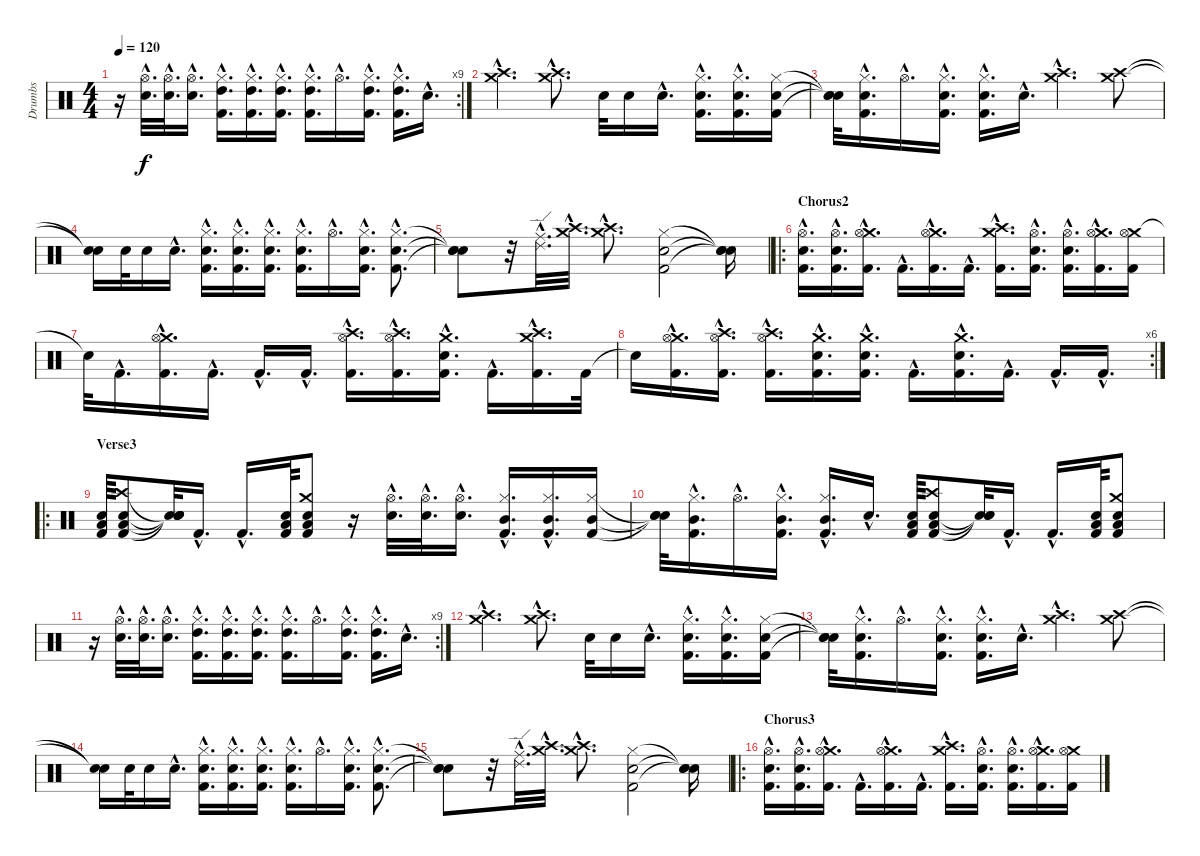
\track ("Drumbs" "Drumbs") {instrument percussion}
\staff {score}
\articulation defaults
\rc 9
\ts (4 4)
\tempo 120
\clef neutral
\ks c
r.16{dy f} ("Electric Snare (hit)"{hac} "Hi-Hat (open)"{hac}).32{d} ("Electric Snare (hit)"{hac} "Hi-Hat (open)"{hac}).32{d} ("Electric Snare (hit)"{hac} "Hi-Hat (open)"{hac}).16{d} ("High Tom (hit)"{hac} "Kick (hit) 2"{hac} "Hi-Hat (closed)"{hac}).16{d} ("High Tom (hit)"{hac} "Kick (hit) 2"{hac} "Hi-Hat (closed)"{hac}).16{d} ("High Tom (hit)"{hac} "Kick (hit) 2"{hac} "Hi-Hat (closed)"{hac}).16{d} ("High Tom (hit)"{hac} "Kick (hit) 2"{hac} "Hi-Hat (closed)"{hac}).16{d} "Hi-Hat (open)"{hac}.16{d} ("High Tom (hit)"{hac} "Kick (hit) 2"{hac} "Hi-Hat (closed)"{hac}).16{d} ("High Tom (hit)"{hac} "Kick (hit) 2"{hac} "Hi-Hat (closed)"{hac}).16{d} "Electric Snare (hit)"{hac}.16{d} |
("Crash high (hit)"{hac} "Crash medium (hit)"{hac}).4{d} ("Crash high (hit)"{hac} "Crash medium (hit)"{hac}).8{d} "Electric Snare (hit)".32 "Electric Snare (hit)".16 "Electric Snare (hit)"{hac}.16{d} ("Electric Snare (hit)"{hac} "Kick (hit) 2"{hac} "Hi-Hat (closed)"{hac}).16{d} ("Electric Snare (hit)"{hac} "Kick (hit) 2"{hac} "Hi-Hat (closed)"{hac}).16{d} ("Electric Snare (hit)" "Kick (hit) 2" "Hi-Hat (closed)").16 |
("Snare (hit)"{t} "Snare (hit)"{t} "Snare (hit)"{t}).32 ("Electric Snare (hit)"{hac} "Kick (hit) 2"{hac} "Hi-Hat (closed)"{hac}).16{d} "Hi-Hat (open)"{hac}.16{d} ("Electric Snare (hit)"{hac} "Kick (hit) 2"{hac} "Hi-Hat (closed)"{hac}).16{d} ("Electric Snare (hit)"{hac} "Kick (hit) 2"{hac} "Hi-Hat (closed)"{hac}).16{d} "Electric Snare (hit)"{hac}.16{d} ("Crash high (hit)"{hac} "Crash medium (hit)"{hac}).4{d} ("Crash high (hit)" "Crash medium (hit)").8 |
("Snare (hit)"{t} "Snare (hit)"{t}).16 "Electric Snare (hit)".32 "Electric Snare (hit)".16 "Electric Snare (hit)"{hac}.16{d} ("Electric Snare (hit)"{hac} "Kick (hit) 2"{hac} "Hi-Hat (closed)"{hac}).16{d} ("Electric Snare (hit)"{hac} "Kick (hit) 2"{hac} "Hi-Hat (closed)"{hac}).16{d} ("Electric Snare (hit)"{hac} "Kick (hit) 2"{hac} "Hi-Hat (closed)"{hac}).16{d} ("Electric Snare (hit)"{hac} "Kick (hit) 2"{hac} "Hi-Hat (closed)"{hac}).16{d} "Hi-Hat (open)"{hac}.16{d} ("Electric Snare (hit)"{hac} "Kick (hit) 2"{hac} "Hi-Hat (closed)"{hac}).16{d} ("Electric Snare (hit)"{hac} "Kick (hit) 2"{hac} "Hi-Hat (closed)"{hac}).8{d} |
("Snare (hit)"{t} "Electric Snare (hit)"{t} "Snare (hit)"{t}).8 r.32 ("Ride (middle)"{hac} "Ride (edge) 2"{hac}).32{d} ("Crash high (hit)"{hac} "Crash medium (hit)"{hac}).32{d} ("Crash high (hit)"{hac} "Crash medium (hit)"{hac}).8{d} ("Electric Snare (hit)" "Kick (hit) 2" "Hi-Hat (closed)").2 ("Snare (hit)"{t} "Snare (hit)"{t} "Snare (hit)"{t}).16 |
\ro
\section ("" "Chorus2")
("Hi-Hat (open)"{hac} "Electric Snare (hit)"{hac} "Kick (hit) 2"{hac}).16{d} ("Hi-Hat (open)"{hac} "Electric Snare (hit)"{hac} "Kick (hit) 2"{hac}).16{d} ("Crash medium (hit)"{hac} "Hi-Hat (open)"{hac} "Kick (hit) 2"{hac}).16{d} "Kick (hit) 2"{hac}.16{d} ("Crash medium (hit)"{hac} "Hi-Hat (open)"{hac} "Kick (hit) 2"{hac}).16{d} "Kick (hit) 2"{hac}.16{d} ("Crash medium (hit)"{hac} "Crash high (hit)"{hac} "Kick (hit) 2"{hac}).16{d} ("Hi-Hat (open)"{hac} "Electric Snare (hit)"{hac} "Kick (hit) 2"{hac}).16{d} ("Hi-Hat (open)"{hac} "Electric Snare (hit)"{hac} "Kick (hit) 2"{hac}).16{d} ("Crash medium (hit)"{hac} "Hi-Hat (open)"{hac} "Kick (hit) 2"{hac}).16{d} ("Crash medium (hit)" "Hi-Hat (open)" "Kick (hit) 2").16 |
"Snare (hit)"{t}.32 "Kick (hit) 2"{hac}.16{d} ("Crash medium (hit)"{hac} "Hi-Hat (open)"{hac} "Kick (hit) 2"{hac}).16{d} "Kick (hit) 2"{hac}.16{d} "Kick (hit) 2"{hac}.16{d} "Kick (hit) 2"{hac}.16{d} ("Hi-Hat (open)"{hac} "Crash high (hit)"{hac} "Kick (hit) 2"{hac}).16{d} ("Hi-Hat (open)"{hac} "Crash high (hit)"{hac} "Kick (hit) 2"{hac}).16{d} ("Crash medium (hit)"{hac} "Electric Snare (hit)"{hac} "Kick (hit) 2"{hac}).16{d} "Kick (hit) 2"{hac}.16{d} ("Crash medium (hit)"{hac} "Crash high (hit)"{hac} "Kick (hit) 2"{hac}).16{d} "Kick (hit) 2".32 |
\rc 6 "Snare (hit)"{t}.16
("Crash medium (hit)"{hac} "Hi-Hat (open)"{hac} "Kick (hit) 2"{hac}).16{d} ("Hi-Hat (open)"{hac} "Crash high (hit)"{hac} "Kick (hit) 2"{hac}).16{d} ("Hi-Hat (open)"{hac} "Crash high (hit)"{hac} "Kick (hit) 2"{hac}).16{d} ("Crash medium (hit)"{hac} "Electric Snare (hit)"{hac} "Kick (hit) 2"{hac}).16{d} ("Crash medium (hit)"{hac} "Electric Snare (hit)"{hac} "Kick (hit) 2"{hac}).16{d} "Kick (hit) 2"{hac}.16{d} ("Crash medium (hit)"{hac} "Electric Snare (hit)"{hac} "Kick (hit) 2"{hac}).16{d} "Kick (hit) 2"{hac}.16{d} "Kick (hit) 2"{hac}.16{d} "Kick (hit) 2"{hac}.16{d} |
\ro
\section ("" "Verse3")
("Electric Snare (hit)" "Kick (hit) 2" "Low Tom (hit)").64 ("Electric Snare (hit)" "Kick (hit) 2" "Low Tom (hit)" "Crash high (hit)").8 ("Snare (hit)"{t} "Snare (hit)"{t} "Snare (hit)"{t} "Snare (hit)"{t}).32 "Kick (hit) 2"{hac}.16{d} "Kick (hit) 2"{hac}.16{d} ("Electric Snare (hit)" "Kick (hit) 2" "Low Tom (hit)").64 ("Electric Snare (hit)" "Kick (hit) 2" "Low Tom (hit)" "Crash medium (hit)").8 r.16 ("Electric Snare (hit)"{hac} "Hi-Hat (open)"{hac}).32{d} ("Electric Snare (hit)"{hac} "Hi-Hat (open)"{hac}).32{d} ("Electric Snare (hit)"{hac} "Hi-Hat (open)"{hac}).16{d} ("Mid Tom (hit)"{hac} "Kick (hit) 2"{hac} "Hi-Hat (closed)"{hac}).16{d} ("Mid Tom (hit)"{hac} "Kick (hit) 2"{hac} "Hi-Hat (closed)"{hac}).16{d} ("Mid Tom (hit)" "Kick (hit) 2" "Hi-Hat (closed)").16 |
("Snare (hit)"{t} "Snare (hit)"{t} "Snare (hit)"{t}).32 ("Mid Tom (hit)"{hac} "Kick (hit) 2"{hac} "Hi-Hat (closed)"{hac}).16{d} "Hi-Hat (open)"{hac}.16{d} ("Mid Tom (hit)"{hac} "Kick (hit) 2"{hac} "Hi-Hat (closed)"{hac}).16{d} ("Mid Tom (hit)"{hac} "Kick (hit) 2"{hac} "Hi-Hat (closed)"{hac}).16{d} "Electric Snare (hit)"{hac}.16{d} ("Electric Snare (hit)" "Kick (hit) 2" "Low Tom (hit)").64 ("Electric Snare (hit)" "Kick (hit) 2" "Low Tom (hit)" "Crash high (hit)").8 ("Snare (hit)"{t} "Snare (hit)"{t} "Snare (hit)"{t}).32 "Kick (hit) 2"{hac}.16{d} "Kick (hit) 2"{hac}.16{d} ("Electric Snare (hit)" "Kick (hit) 2" "Low Tom (hit)").64 ("Electric Snare (hit)" "Kick (hit) 2" "Low Tom (hit)" "Crash medium (hit)").8 |
\rc 9
r.16 ("Electric Snare (hit)"{hac} "Hi-Hat (open)"{hac}).32{d} ("Electric Snare (hit)"{hac} "Hi-Hat (open)"{hac}).32{d} ("Electric Snare (hit)"{hac} "Hi-Hat (open)"{hac}).16{d} ("High Tom (hit)"{hac} "Kick (hit) 2"{hac} "Hi-Hat (closed)"{hac}).16{d} ("High Tom (hit)"{hac} "Kick (hit) 2"{hac} "Hi-Hat (closed)"{hac}).16{d} ("High Tom (hit)"{hac} "Kick (hit) 2"{hac} "Hi-Hat (closed)"{hac}).16{d} ("High Tom (hit)"{hac} "Kick (hit) 2"{hac} "Hi-Hat (closed)"{hac}).16{d} "Hi-Hat (open)"{hac}.16{d} ("High Tom (hit)"{hac} "Kick (hit) 2"{hac} "Hi-Hat (closed)"{hac}).16{d} ("High Tom (hit)"{hac} "Kick (hit) 2"{hac} "Hi-Hat (closed)"{hac}).16{d} "Electric Snare (hit)"{hac}.16{d} |
("Crash high (hit)"{hac} "Crash medium (hit)"{hac}).4{d} ("Crash high (hit)"{hac} "Crash medium (hit)"{hac}).8{d} "Electric Snare (hit)".32 "Electric Snare (hit)".16 "Electric Snare (hit)"{hac}.16{d} ("Electric Snare (hit)"{hac} "Kick (hit) 2"{hac} "Hi-Hat (closed)"{hac}).16{d} ("Electric Snare (hit)"{hac} "Kick (hit) 2"{hac} "Hi-Hat (closed)"{hac}).16{d} ("Electric Snare (hit)" "Kick (hit) 2" "Hi-Hat (closed)").16 |
("Snare (hit)"{t} "Snare (hit)"{t} "Snare (hit)"{t}).32 ("Electric Snare (hit)"{hac} "Kick (hit) 2"{hac} "Hi-Hat (closed)"{hac}).16{d} "Hi-Hat (open)"{hac}.16{d} ("Electric Snare (hit)"{hac} "Kick (hit) 2"{hac} "Hi-Hat (closed)"{hac}).16{d} ("Electric Snare (hit)"{hac} "Kick (hit) 2"{hac} "Hi-Hat (closed)"{hac}).16{d} "Electric Snare (hit)"{hac}.16{d} ("Crash high (hit)"{hac} "Crash medium (hit)"{hac}).4{d} ("Crash high (hit)" "Crash medium (hit)").8 |
("Snare (hit)"{t} "Snare (hit)"{t}).16 "Electric Snare (hit)".32 "Electric Snare (hit)".16 "Electric Snare (hit)"{hac}.16{d} ("Electric Snare (hit)"{hac} "Kick (hit) 2"{hac} "Hi-Hat (closed)"{hac}).16{d} ("Electric Snare (hit)"{hac} "Kick (hit) 2"{hac} "Hi-Hat (closed)"{hac}).16{d} ("Electric Snare (hit)"{hac} "Kick (hit) 2"{hac} "Hi-Hat (closed)"{hac}).16{d} ("Electric Snare (hit)"{hac} "Kick (hit) 2"{hac} "Hi-Hat (closed)"{hac}).16{d} "Hi-Hat (open)"{hac}.16{d} ("Electric Snare (hit)"{hac} "Kick (hit) 2"{hac} "Hi-Hat (closed)"{hac}).16{d} ("Electric Snare (hit)"{hac} "Kick (hit) 2"{hac} "Hi-Hat (closed)"{hac}).8{d} |
("Snare (hit)"{t} "Electric Snare (hit)"{t} "Snare (hit)"{t}).8 r.32 ("Ride (middle)"{hac} "Ride (edge) 2"{hac}).32{d} ("Crash high (hit)"{hac} "Crash medium (hit)"{hac}).32{d} ("Crash high (hit)"{hac} "Crash medium (hit)"{hac}).8{d} ("Electric Snare (hit)" "Kick (hit) 2" "Hi-Hat (closed)").2 ("Snare (hit)"{t} "Snare (hit)"{t} "Snare (hit)"{t}).16 |
\ro
\section ("" "Chorus3")
("Hi-Hat (open)"{hac} "Electric Snare (hit)"{hac} "Kick (hit) 2"{hac}).16{d} ("Hi-Hat (open)"{hac} "Electric Snare (hit)"{hac} "Kick (hit) 2"{hac}).16{d} ("Crash medium (hit)"{hac} "Hi-Hat (open)"{hac} "Kick (hit) 2"{hac}).16{d} "Kick (hit) 2"{hac}.16{d} ("Crash medium (hit)"{hac} "Hi-Hat (open)"{hac} "Kick (hit) 2"{hac}).16{d} "Kick (hit) 2"{hac}.16{d} ("Crash medium (hit)"{hac} "Crash high (hit)"{hac} "Kick (hit) 2"{hac}).16{d} ("Hi-Hat (open)"{hac} "Electric Snare (hit)"{hac} "Kick (hit) 2"{hac}).16{d} ("Hi-Hat (open)"{hac} "Electric Snare (hit)"{hac} "Kick (hit) 2"{hac}).16{d} ("Crash medium (hit)"{hac} "Hi-Hat (open)"{hac} "Kick (hit) 2"{hac}).16{d} ("Crash medium (hit)" "Hi-Hat (open)" "Kick (hit) 2").16
